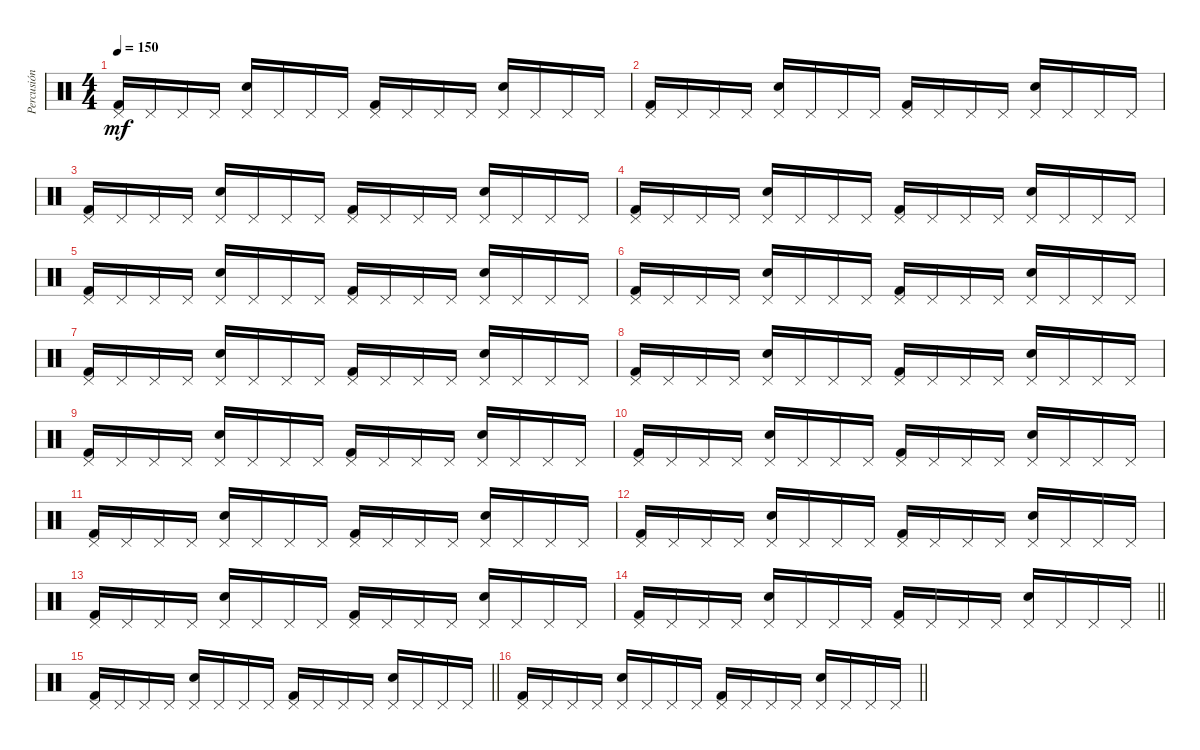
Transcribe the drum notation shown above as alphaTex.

\track ("Percusión" "Percusión") {instrument percussion}
\staff {score}
\articulation defaults
\ts (4 4)
\tempo 150
\clef neutral
\ks c
("Pedal Hi-Hat (hit)" "Kick (hit) 2").16{dy mf} "Pedal Hi-Hat (hit)".16 "Pedal Hi-Hat (hit)".16 "Pedal Hi-Hat (hit)".16 ("Pedal Hi-Hat (hit)" "Electric Snare (hit)").16 "Pedal Hi-Hat (hit)".16 "Pedal Hi-Hat (hit)".16 "Pedal Hi-Hat (hit)".16 ("Pedal Hi-Hat (hit)" "Kick (hit) 2").16 "Pedal Hi-Hat (hit)".16 "Pedal Hi-Hat (hit)".16 "Pedal Hi-Hat (hit)".16 ("Pedal Hi-Hat (hit)" "Electric Snare (hit)").16 "Pedal Hi-Hat (hit)".16 "Pedal Hi-Hat (hit)".16 "Pedal Hi-Hat (hit)".16 |
("Pedal Hi-Hat (hit)" "Kick (hit) 2").16 "Pedal Hi-Hat (hit)".16 "Pedal Hi-Hat (hit)".16 "Pedal Hi-Hat (hit)".16 ("Pedal Hi-Hat (hit)" "Electric Snare (hit)").16 "Pedal Hi-Hat (hit)".16 "Pedal Hi-Hat (hit)".16 "Pedal Hi-Hat (hit)".16 ("Pedal Hi-Hat (hit)" "Kick (hit) 2").16 "Pedal Hi-Hat (hit)".16 "Pedal Hi-Hat (hit)".16 "Pedal Hi-Hat (hit)".16 ("Pedal Hi-Hat (hit)" "Electric Snare (hit)").16 "Pedal Hi-Hat (hit)".16 "Pedal Hi-Hat (hit)".16 "Pedal Hi-Hat (hit)".16 |
("Pedal Hi-Hat (hit)" "Kick (hit) 2").16 "Pedal Hi-Hat (hit)".16 "Pedal Hi-Hat (hit)".16 "Pedal Hi-Hat (hit)".16 ("Pedal Hi-Hat (hit)" "Electric Snare (hit)").16 "Pedal Hi-Hat (hit)".16 "Pedal Hi-Hat (hit)".16 "Pedal Hi-Hat (hit)".16 ("Pedal Hi-Hat (hit)" "Kick (hit) 2").16 "Pedal Hi-Hat (hit)".16 "Pedal Hi-Hat (hit)".16 "Pedal Hi-Hat (hit)".16 ("Pedal Hi-Hat (hit)" "Electric Snare (hit)").16 "Pedal Hi-Hat (hit)".16 "Pedal Hi-Hat (hit)".16 "Pedal Hi-Hat (hit)".16 |
("Pedal Hi-Hat (hit)" "Kick (hit) 2").16 "Pedal Hi-Hat (hit)".16 "Pedal Hi-Hat (hit)".16 "Pedal Hi-Hat (hit)".16 ("Pedal Hi-Hat (hit)" "Electric Snare (hit)").16 "Pedal Hi-Hat (hit)".16 "Pedal Hi-Hat (hit)".16 "Pedal Hi-Hat (hit)".16 ("Pedal Hi-Hat (hit)" "Kick (hit) 2").16 "Pedal Hi-Hat (hit)".16 "Pedal Hi-Hat (hit)".16 "Pedal Hi-Hat (hit)".16 ("Pedal Hi-Hat (hit)" "Electric Snare (hit)").16 "Pedal Hi-Hat (hit)".16 "Pedal Hi-Hat (hit)".16 "Pedal Hi-Hat (hit)".16 |
("Pedal Hi-Hat (hit)" "Kick (hit) 2").16 "Pedal Hi-Hat (hit)".16 "Pedal Hi-Hat (hit)".16 "Pedal Hi-Hat (hit)".16 ("Pedal Hi-Hat (hit)" "Electric Snare (hit)").16 "Pedal Hi-Hat (hit)".16 "Pedal Hi-Hat (hit)".16 "Pedal Hi-Hat (hit)".16 ("Pedal Hi-Hat (hit)" "Kick (hit) 2").16 "Pedal Hi-Hat (hit)".16 "Pedal Hi-Hat (hit)".16 "Pedal Hi-Hat (hit)".16 ("Pedal Hi-Hat (hit)" "Electric Snare (hit)").16 "Pedal Hi-Hat (hit)".16 "Pedal Hi-Hat (hit)".16 "Pedal Hi-Hat (hit)".16 |
("Pedal Hi-Hat (hit)" "Kick (hit) 2").16 "Pedal Hi-Hat (hit)".16 "Pedal Hi-Hat (hit)".16 "Pedal Hi-Hat (hit)".16 ("Pedal Hi-Hat (hit)" "Electric Snare (hit)").16 "Pedal Hi-Hat (hit)".16 "Pedal Hi-Hat (hit)".16 "Pedal Hi-Hat (hit)".16 ("Pedal Hi-Hat (hit)" "Kick (hit) 2").16 "Pedal Hi-Hat (hit)".16 "Pedal Hi-Hat (hit)".16 "Pedal Hi-Hat (hit)".16 ("Pedal Hi-Hat (hit)" "Electric Snare (hit)").16 "Pedal Hi-Hat (hit)".16 "Pedal Hi-Hat (hit)".16 "Pedal Hi-Hat (hit)".16 |
("Pedal Hi-Hat (hit)" "Kick (hit) 2").16 "Pedal Hi-Hat (hit)".16 "Pedal Hi-Hat (hit)".16 "Pedal Hi-Hat (hit)".16 ("Pedal Hi-Hat (hit)" "Electric Snare (hit)").16 "Pedal Hi-Hat (hit)".16 "Pedal Hi-Hat (hit)".16 "Pedal Hi-Hat (hit)".16 ("Pedal Hi-Hat (hit)" "Kick (hit) 2").16 "Pedal Hi-Hat (hit)".16 "Pedal Hi-Hat (hit)".16 "Pedal Hi-Hat (hit)".16 ("Pedal Hi-Hat (hit)" "Electric Snare (hit)").16 "Pedal Hi-Hat (hit)".16 "Pedal Hi-Hat (hit)".16 "Pedal Hi-Hat (hit)".16 |
("Pedal Hi-Hat (hit)" "Kick (hit) 2").16 "Pedal Hi-Hat (hit)".16 "Pedal Hi-Hat (hit)".16 "Pedal Hi-Hat (hit)".16 ("Pedal Hi-Hat (hit)" "Electric Snare (hit)").16 "Pedal Hi-Hat (hit)".16 "Pedal Hi-Hat (hit)".16 "Pedal Hi-Hat (hit)".16 ("Pedal Hi-Hat (hit)" "Kick (hit) 2").16 "Pedal Hi-Hat (hit)".16 "Pedal Hi-Hat (hit)".16 "Pedal Hi-Hat (hit)".16 ("Pedal Hi-Hat (hit)" "Electric Snare (hit)").16 "Pedal Hi-Hat (hit)".16 "Pedal Hi-Hat (hit)".16 "Pedal Hi-Hat (hit)".16 |
("Pedal Hi-Hat (hit)" "Kick (hit) 2").16 "Pedal Hi-Hat (hit)".16 "Pedal Hi-Hat (hit)".16 "Pedal Hi-Hat (hit)".16 ("Pedal Hi-Hat (hit)" "Electric Snare (hit)").16 "Pedal Hi-Hat (hit)".16 "Pedal Hi-Hat (hit)".16 "Pedal Hi-Hat (hit)".16 ("Pedal Hi-Hat (hit)" "Kick (hit) 2").16 "Pedal Hi-Hat (hit)".16 "Pedal Hi-Hat (hit)".16 "Pedal Hi-Hat (hit)".16 ("Pedal Hi-Hat (hit)" "Electric Snare (hit)").16 "Pedal Hi-Hat (hit)".16 "Pedal Hi-Hat (hit)".16 "Pedal Hi-Hat (hit)".16 |
("Pedal Hi-Hat (hit)" "Kick (hit) 2").16 "Pedal Hi-Hat (hit)".16 "Pedal Hi-Hat (hit)".16 "Pedal Hi-Hat (hit)".16 ("Pedal Hi-Hat (hit)" "Electric Snare (hit)").16 "Pedal Hi-Hat (hit)".16 "Pedal Hi-Hat (hit)".16 "Pedal Hi-Hat (hit)".16 ("Pedal Hi-Hat (hit)" "Kick (hit) 2").16 "Pedal Hi-Hat (hit)".16 "Pedal Hi-Hat (hit)".16 "Pedal Hi-Hat (hit)".16 ("Pedal Hi-Hat (hit)" "Electric Snare (hit)").16 "Pedal Hi-Hat (hit)".16 "Pedal Hi-Hat (hit)".16 "Pedal Hi-Hat (hit)".16 |
("Pedal Hi-Hat (hit)" "Kick (hit) 2").16 "Pedal Hi-Hat (hit)".16 "Pedal Hi-Hat (hit)".16 "Pedal Hi-Hat (hit)".16 ("Pedal Hi-Hat (hit)" "Electric Snare (hit)").16 "Pedal Hi-Hat (hit)".16 "Pedal Hi-Hat (hit)".16 "Pedal Hi-Hat (hit)".16 ("Pedal Hi-Hat (hit)" "Kick (hit) 2").16 "Pedal Hi-Hat (hit)".16 "Pedal Hi-Hat (hit)".16 "Pedal Hi-Hat (hit)".16 ("Pedal Hi-Hat (hit)" "Electric Snare (hit)").16 "Pedal Hi-Hat (hit)".16 "Pedal Hi-Hat (hit)".16 "Pedal Hi-Hat (hit)".16 |
("Pedal Hi-Hat (hit)" "Kick (hit) 2").16 "Pedal Hi-Hat (hit)".16 "Pedal Hi-Hat (hit)".16 "Pedal Hi-Hat (hit)".16 ("Pedal Hi-Hat (hit)" "Electric Snare (hit)").16 "Pedal Hi-Hat (hit)".16 "Pedal Hi-Hat (hit)".16 "Pedal Hi-Hat (hit)".16 ("Pedal Hi-Hat (hit)" "Kick (hit) 2").16 "Pedal Hi-Hat (hit)".16 "Pedal Hi-Hat (hit)".16 "Pedal Hi-Hat (hit)".16 ("Pedal Hi-Hat (hit)" "Electric Snare (hit)").16 "Pedal Hi-Hat (hit)".16 "Pedal Hi-Hat (hit)".16 "Pedal Hi-Hat (hit)".16 |
("Pedal Hi-Hat (hit)" "Kick (hit) 2").16 "Pedal Hi-Hat (hit)".16 "Pedal Hi-Hat (hit)".16 "Pedal Hi-Hat (hit)".16 ("Pedal Hi-Hat (hit)" "Electric Snare (hit)").16 "Pedal Hi-Hat (hit)".16 "Pedal Hi-Hat (hit)".16 "Pedal Hi-Hat (hit)".16 ("Pedal Hi-Hat (hit)" "Kick (hit) 2").16 "Pedal Hi-Hat (hit)".16 "Pedal Hi-Hat (hit)".16 "Pedal Hi-Hat (hit)".16 ("Pedal Hi-Hat (hit)" "Electric Snare (hit)").16 "Pedal Hi-Hat (hit)".16 "Pedal Hi-Hat (hit)".16 "Pedal Hi-Hat (hit)".16 |
\barLineRight lightlight
("Pedal Hi-Hat (hit)" "Kick (hit) 2").16 "Pedal Hi-Hat (hit)".16 "Pedal Hi-Hat (hit)".16 "Pedal Hi-Hat (hit)".16 ("Pedal Hi-Hat (hit)" "Electric Snare (hit)").16 "Pedal Hi-Hat (hit)".16 "Pedal Hi-Hat (hit)".16 "Pedal Hi-Hat (hit)".16 ("Pedal Hi-Hat (hit)" "Kick (hit) 2").16 "Pedal Hi-Hat (hit)".16 "Pedal Hi-Hat (hit)".16 "Pedal Hi-Hat (hit)".16 ("Pedal Hi-Hat (hit)" "Electric Snare (hit)").16 "Pedal Hi-Hat (hit)".16 "Pedal Hi-Hat (hit)".16 "Pedal Hi-Hat (hit)".16 |
\barLineRight lightlight
("Pedal Hi-Hat (hit)" "Kick (hit) 2").16 "Pedal Hi-Hat (hit)".16 "Pedal Hi-Hat (hit)".16 "Pedal Hi-Hat (hit)".16 ("Pedal Hi-Hat (hit)" "Electric Snare (hit)").16 "Pedal Hi-Hat (hit)".16 "Pedal Hi-Hat (hit)".16 "Pedal Hi-Hat (hit)".16 ("Pedal Hi-Hat (hit)" "Kick (hit) 2").16 "Pedal Hi-Hat (hit)".16 "Pedal Hi-Hat (hit)".16 "Pedal Hi-Hat (hit)".16 ("Pedal Hi-Hat (hit)" "Electric Snare (hit)").16 "Pedal Hi-Hat (hit)".16 "Pedal Hi-Hat (hit)".16 "Pedal Hi-Hat (hit)".16 |
\barLineRight lightlight
("Pedal Hi-Hat (hit)" "Kick (hit) 2").16 "Pedal Hi-Hat (hit)".16 "Pedal Hi-Hat (hit)".16 "Pedal Hi-Hat (hit)".16 ("Pedal Hi-Hat (hit)" "Electric Snare (hit)").16 "Pedal Hi-Hat (hit)".16 "Pedal Hi-Hat (hit)".16 "Pedal Hi-Hat (hit)".16 ("Pedal Hi-Hat (hit)" "Kick (hit) 2").16 "Pedal Hi-Hat (hit)".16 "Pedal Hi-Hat (hit)".16 "Pedal Hi-Hat (hit)".16 ("Pedal Hi-Hat (hit)" "Electric Snare (hit)").16 "Pedal Hi-Hat (hit)".16 "Pedal Hi-Hat (hit)".16 "Pedal Hi-Hat (hit)".16
